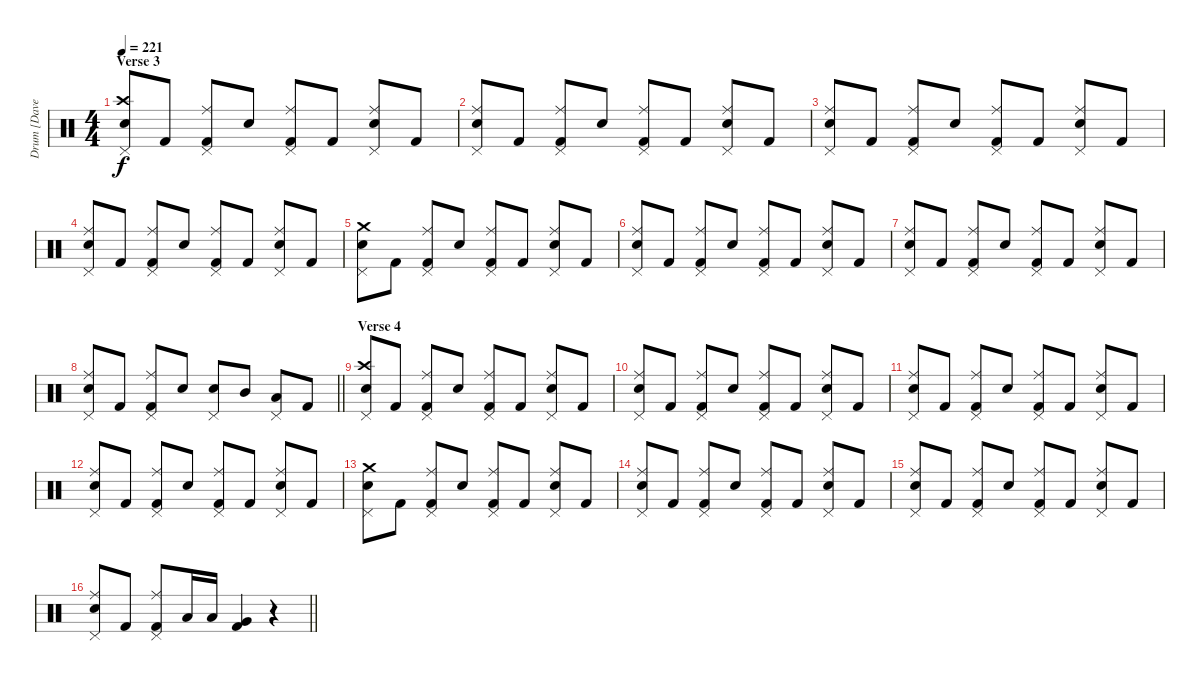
\track ("Drum [Dave Grohl]" "Drum [Dave") {instrument percussion bank 255}
\staff {score}
\articulation defaults
\ts (4 4)
\section ("" "Verse 3")
\tempo 221
\clef neutral
\ks c
("Pedal Hi-Hat (hit)" "Crash high (hit)" "Snare (hit) 2").8{dy f} "Kick (hit) 2".8 ("Pedal Hi-Hat (hit)" "Ride (middle)" "Kick (hit) 2").8 "Snare (hit) 2".8 ("Pedal Hi-Hat (hit)" "Ride (middle)" "Kick (hit) 2").8 "Kick (hit) 2".8 ("Pedal Hi-Hat (hit)" "Ride (middle)" "Snare (hit) 2").8 "Kick (hit) 2".8 |
("Pedal Hi-Hat (hit)" "Ride (middle)" "Snare (hit) 2").8 "Kick (hit) 2".8 ("Pedal Hi-Hat (hit)" "Ride (middle)" "Kick (hit) 2").8 "Snare (hit) 2".8 ("Pedal Hi-Hat (hit)" "Ride (middle)" "Kick (hit) 2").8 "Kick (hit) 2".8 ("Pedal Hi-Hat (hit)" "Ride (middle)" "Snare (hit) 2").8 "Kick (hit) 2".8 |
("Pedal Hi-Hat (hit)" "Ride (middle)" "Snare (hit) 2").8 "Kick (hit) 2".8 ("Pedal Hi-Hat (hit)" "Ride (middle)" "Kick (hit) 2").8 "Snare (hit) 2".8 ("Pedal Hi-Hat (hit)" "Ride (middle)" "Kick (hit) 2").8 "Kick (hit) 2".8 ("Pedal Hi-Hat (hit)" "Ride (middle)" "Snare (hit) 2").8 "Kick (hit) 2".8 |
("Pedal Hi-Hat (hit)" "Ride (middle)" "Snare (hit) 2").8 "Kick (hit) 2".8 ("Pedal Hi-Hat (hit)" "Ride (middle)" "Kick (hit) 2").8 "Snare (hit) 2".8 ("Pedal Hi-Hat (hit)" "Ride (middle)" "Kick (hit) 2").8 "Kick (hit) 2".8 ("Pedal Hi-Hat (hit)" "Ride (middle)" "Snare (hit) 2").8 "Kick (hit) 2".8 |
("Pedal Hi-Hat (hit)" "Crash medium (hit)" "Snare (hit) 2").8 "Kick (hit) 2".8 ("Pedal Hi-Hat (hit)" "Ride (middle)" "Kick (hit) 2").8 "Snare (hit) 2".8 ("Pedal Hi-Hat (hit)" "Ride (middle)" "Kick (hit) 2").8 "Kick (hit) 2".8 ("Pedal Hi-Hat (hit)" "Ride (middle)" "Snare (hit) 2").8 "Kick (hit) 2".8 |
("Pedal Hi-Hat (hit)" "Ride (middle)" "Snare (hit) 2").8 "Kick (hit) 2".8 ("Pedal Hi-Hat (hit)" "Ride (middle)" "Kick (hit) 2").8 "Snare (hit) 2".8 ("Pedal Hi-Hat (hit)" "Ride (middle)" "Kick (hit) 2").8 "Kick (hit) 2".8 ("Pedal Hi-Hat (hit)" "Ride (middle)" "Snare (hit) 2").8 "Kick (hit) 2".8 |
("Pedal Hi-Hat (hit)" "Ride (middle)" "Snare (hit) 2").8 "Kick (hit) 2".8 ("Pedal Hi-Hat (hit)" "Ride (middle)" "Kick (hit) 2").8 "Snare (hit) 2".8 ("Pedal Hi-Hat (hit)" "Ride (middle)" "Kick (hit) 2").8 "Kick (hit) 2".8 ("Pedal Hi-Hat (hit)" "Ride (middle)" "Snare (hit) 2").8 "Kick (hit) 2".8 |
\barLineRight lightlight
("Pedal Hi-Hat (hit)" "Ride (middle)" "Snare (hit) 2").8 "Kick (hit) 2".8 ("Pedal Hi-Hat (hit)" "Ride (middle)" "Kick (hit) 2").8 "Snare (hit) 2".8 ("Pedal Hi-Hat (hit)" "Snare (hit) 2").8 "Mid Tom (hit)".8 ("Pedal Hi-Hat (hit)" "Low Tom (hit)").8 "Kick (hit) 2".8 |
\section ("" "Verse 4")
("Pedal Hi-Hat (hit)" "Crash high (hit)" "Snare (hit) 2").8 "Kick (hit) 2".8 ("Pedal Hi-Hat (hit)" "Ride (middle)" "Kick (hit) 2").8 "Snare (hit) 2".8 ("Pedal Hi-Hat (hit)" "Ride (middle)" "Kick (hit) 2").8 "Kick (hit) 2".8 ("Pedal Hi-Hat (hit)" "Ride (middle)" "Snare (hit) 2").8 "Kick (hit) 2".8 |
("Pedal Hi-Hat (hit)" "Ride (middle)" "Snare (hit) 2").8 "Kick (hit) 2".8 ("Pedal Hi-Hat (hit)" "Ride (middle)" "Kick (hit) 2").8 "Snare (hit) 2".8 ("Pedal Hi-Hat (hit)" "Ride (middle)" "Kick (hit) 2").8 "Kick (hit) 2".8 ("Pedal Hi-Hat (hit)" "Ride (middle)" "Snare (hit) 2").8 "Kick (hit) 2".8 |
("Pedal Hi-Hat (hit)" "Ride (middle)" "Snare (hit) 2").8 "Kick (hit) 2".8 ("Pedal Hi-Hat (hit)" "Ride (middle)" "Kick (hit) 2").8 "Snare (hit) 2".8 ("Pedal Hi-Hat (hit)" "Ride (middle)" "Kick (hit) 2").8 "Kick (hit) 2".8 ("Pedal Hi-Hat (hit)" "Ride (middle)" "Snare (hit) 2").8 "Kick (hit) 2".8 |
("Pedal Hi-Hat (hit)" "Ride (middle)" "Snare (hit) 2").8 "Kick (hit) 2".8 ("Pedal Hi-Hat (hit)" "Ride (middle)" "Kick (hit) 2").8 "Snare (hit) 2".8 ("Pedal Hi-Hat (hit)" "Ride (middle)" "Kick (hit) 2").8 "Kick (hit) 2".8 ("Pedal Hi-Hat (hit)" "Ride (middle)" "Snare (hit) 2").8 "Kick (hit) 2".8 |
("Pedal Hi-Hat (hit)" "Crash medium (hit)" "Snare (hit) 2").8 "Kick (hit) 2".8 ("Pedal Hi-Hat (hit)" "Ride (middle)" "Kick (hit) 2").8 "Snare (hit) 2".8 ("Pedal Hi-Hat (hit)" "Ride (middle)" "Kick (hit) 2").8 "Kick (hit) 2".8 ("Pedal Hi-Hat (hit)" "Ride (middle)" "Snare (hit) 2").8 "Kick (hit) 2".8 |
("Pedal Hi-Hat (hit)" "Ride (middle)" "Snare (hit) 2").8 "Kick (hit) 2".8 ("Pedal Hi-Hat (hit)" "Ride (middle)" "Kick (hit) 2").8 "Snare (hit) 2".8 ("Pedal Hi-Hat (hit)" "Ride (middle)" "Kick (hit) 2").8 "Kick (hit) 2".8 ("Pedal Hi-Hat (hit)" "Ride (middle)" "Snare (hit) 2").8 "Kick (hit) 2".8 |
("Pedal Hi-Hat (hit)" "Ride (middle)" "Snare (hit) 2").8 "Kick (hit) 2".8 ("Pedal Hi-Hat (hit)" "Ride (middle)" "Kick (hit) 2").8 "Snare (hit) 2".8 ("Pedal Hi-Hat (hit)" "Ride (middle)" "Kick (hit) 2").8 "Kick (hit) 2".8 ("Pedal Hi-Hat (hit)" "Ride (middle)" "Snare (hit) 2").8 "Kick (hit) 2".8 |
\barLineRight lightlight
("Pedal Hi-Hat (hit)" "Ride (middle)" "Snare (hit) 2").8 "Kick (hit) 2".8 ("Pedal Hi-Hat (hit)" "Ride (middle)" "Kick (hit) 2").8 "Low Tom (hit)".16 "Low Tom (hit)".16 ("Very Low Tom (hit)" "Kick (hit) 2").4 r.4
